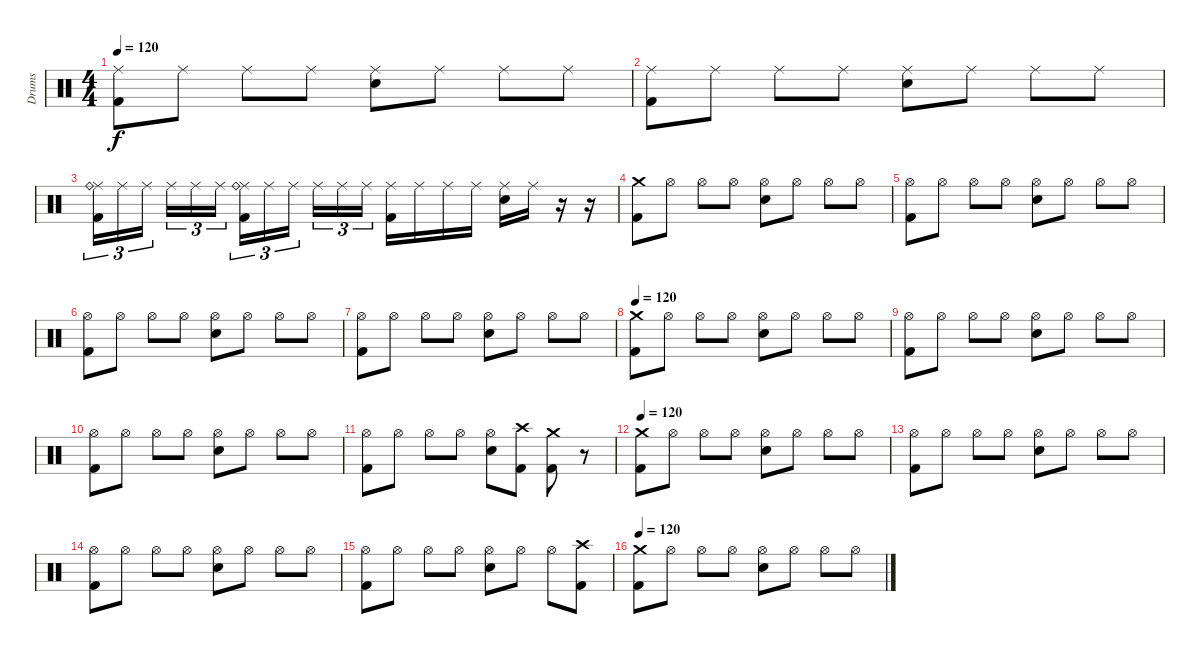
\track ("Drums" "Drums") {instrument percussion}
\staff {score}
\articulation defaults
\ts (4 4)
\tempo 120
\clef neutral
\ks c
("Ride (middle)" "Kick (hit) 2").8{dy f} "Ride (middle)".8 "Ride (middle)".8 "Ride (middle)".8 ("Ride (middle)" "Electric Snare (hit)").8 "Ride (middle)".8 "Ride (middle)".8 "Ride (middle)".8 |
("Ride (middle)" "Kick (hit) 2").8 "Ride (middle)".8 "Ride (middle)".8 "Ride (middle)".8 ("Ride (middle)" "Electric Snare (hit)").8 "Ride (middle)".8 "Ride (middle)".8 "Ride (middle)".8 |
("Ride (middle)" "Ride (bell)" "Kick (hit) 2").16{tu (3 2)} "Ride (middle)".16{tu (3 2)} "Ride (middle)".16{tu (3 2) beam splitsecondary} "Ride (middle)".16{tu (3 2)} "Ride (middle)".16{tu (3 2)} "Ride (middle)".16{tu (3 2)} ("Ride (middle)" "Ride (bell)" "Kick (hit) 2").16{tu (3 2)} "Ride (middle)".16{tu (3 2)} "Ride (middle)".16{tu (3 2) beam splitsecondary} "Ride (middle)".16{tu (3 2)} "Ride (middle)".16{tu (3 2)} "Ride (middle)".16{tu (3 2)} ("Ride (middle)" "Kick (hit) 2").16 "Ride (middle)".16 "Ride (middle)".16 "Ride (middle)".16 ("Ride (middle)" "Electric Snare (hit)").16 "Ride (middle)".16 r.16 r.16 |
("Crash medium (hit)" "Kick (hit) 2").8 "Hi-Hat (open)".8 "Hi-Hat (open)".8 "Hi-Hat (open)".8 ("Hi-Hat (open)" "Electric Snare (hit)").8 "Hi-Hat (open)".8 "Hi-Hat (open)".8 "Hi-Hat (open)".8 |
("Hi-Hat (open)" "Kick (hit) 2").8 "Hi-Hat (open)".8 "Hi-Hat (open)".8 "Hi-Hat (open)".8 ("Hi-Hat (open)" "Electric Snare (hit)").8 "Hi-Hat (open)".8 "Hi-Hat (open)".8 "Hi-Hat (open)".8 |
("Hi-Hat (open)" "Kick (hit) 2").8 "Hi-Hat (open)".8 "Hi-Hat (open)".8 "Hi-Hat (open)".8 ("Hi-Hat (open)" "Electric Snare (hit)").8 "Hi-Hat (open)".8 "Hi-Hat (open)".8 "Hi-Hat (open)".8 |
("Hi-Hat (open)" "Kick (hit) 2").8 "Hi-Hat (open)".8 "Hi-Hat (open)".8 "Hi-Hat (open)".8 ("Hi-Hat (open)" "Electric Snare (hit)").8 "Hi-Hat (open)".8 "Hi-Hat (open)".8 "Hi-Hat (open)".8 |
\tempo 120
("Crash medium (hit)" "Kick (hit) 2").8 "Hi-Hat (open)".8 "Hi-Hat (open)".8 "Hi-Hat (open)".8 ("Hi-Hat (open)" "Electric Snare (hit)").8 "Hi-Hat (open)".8 "Hi-Hat (open)".8 "Hi-Hat (open)".8 |
("Hi-Hat (open)" "Kick (hit) 2").8 "Hi-Hat (open)".8 "Hi-Hat (open)".8 "Hi-Hat (open)".8 ("Hi-Hat (open)" "Electric Snare (hit)").8 "Hi-Hat (open)".8 "Hi-Hat (open)".8 "Hi-Hat (open)".8 |
("Hi-Hat (open)" "Kick (hit) 2").8 "Hi-Hat (open)".8 "Hi-Hat (open)".8 "Hi-Hat (open)".8 ("Hi-Hat (open)" "Electric Snare (hit)").8 "Hi-Hat (open)".8 "Hi-Hat (open)".8 "Hi-Hat (open)".8 |
("Hi-Hat (open)" "Kick (hit) 2").8 "Hi-Hat (open)".8 "Hi-Hat (open)".8 "Hi-Hat (open)".8 ("Hi-Hat (open)" "Electric Snare (hit)").8 ("Crash high (hit)" "Kick (hit) 2").8 ("Crash medium (hit)" "Kick (hit) 2").8 r.8 |
\tempo 120
("Crash medium (hit)" "Kick (hit) 2").8 "Hi-Hat (open)".8 "Hi-Hat (open)".8 "Hi-Hat (open)".8 ("Hi-Hat (open)" "Electric Snare (hit)").8 "Hi-Hat (open)".8 "Hi-Hat (open)".8 "Hi-Hat (open)".8 |
("Hi-Hat (open)" "Kick (hit) 2").8 "Hi-Hat (open)".8 "Hi-Hat (open)".8 "Hi-Hat (open)".8 ("Hi-Hat (open)" "Electric Snare (hit)").8 "Hi-Hat (open)".8 "Hi-Hat (open)".8 "Hi-Hat (open)".8 |
("Hi-Hat (open)" "Kick (hit) 2").8 "Hi-Hat (open)".8 "Hi-Hat (open)".8 "Hi-Hat (open)".8 ("Hi-Hat (open)" "Electric Snare (hit)").8 "Hi-Hat (open)".8 "Hi-Hat (open)".8 "Hi-Hat (open)".8 |
("Hi-Hat (open)" "Kick (hit) 2").8 "Hi-Hat (open)".8 "Hi-Hat (open)".8 "Hi-Hat (open)".8 ("Hi-Hat (open)" "Electric Snare (hit)").8 "Hi-Hat (open)".8 "Hi-Hat (open)".8 ("Crash high (hit)" "Kick (hit) 2").8 |
\tempo 120
("Crash medium (hit)" "Kick (hit) 2").8 "Hi-Hat (open)".8 "Hi-Hat (open)".8 "Hi-Hat (open)".8 ("Hi-Hat (open)" "Electric Snare (hit)").8 "Hi-Hat (open)".8 "Hi-Hat (open)".8 "Hi-Hat (open)".8
